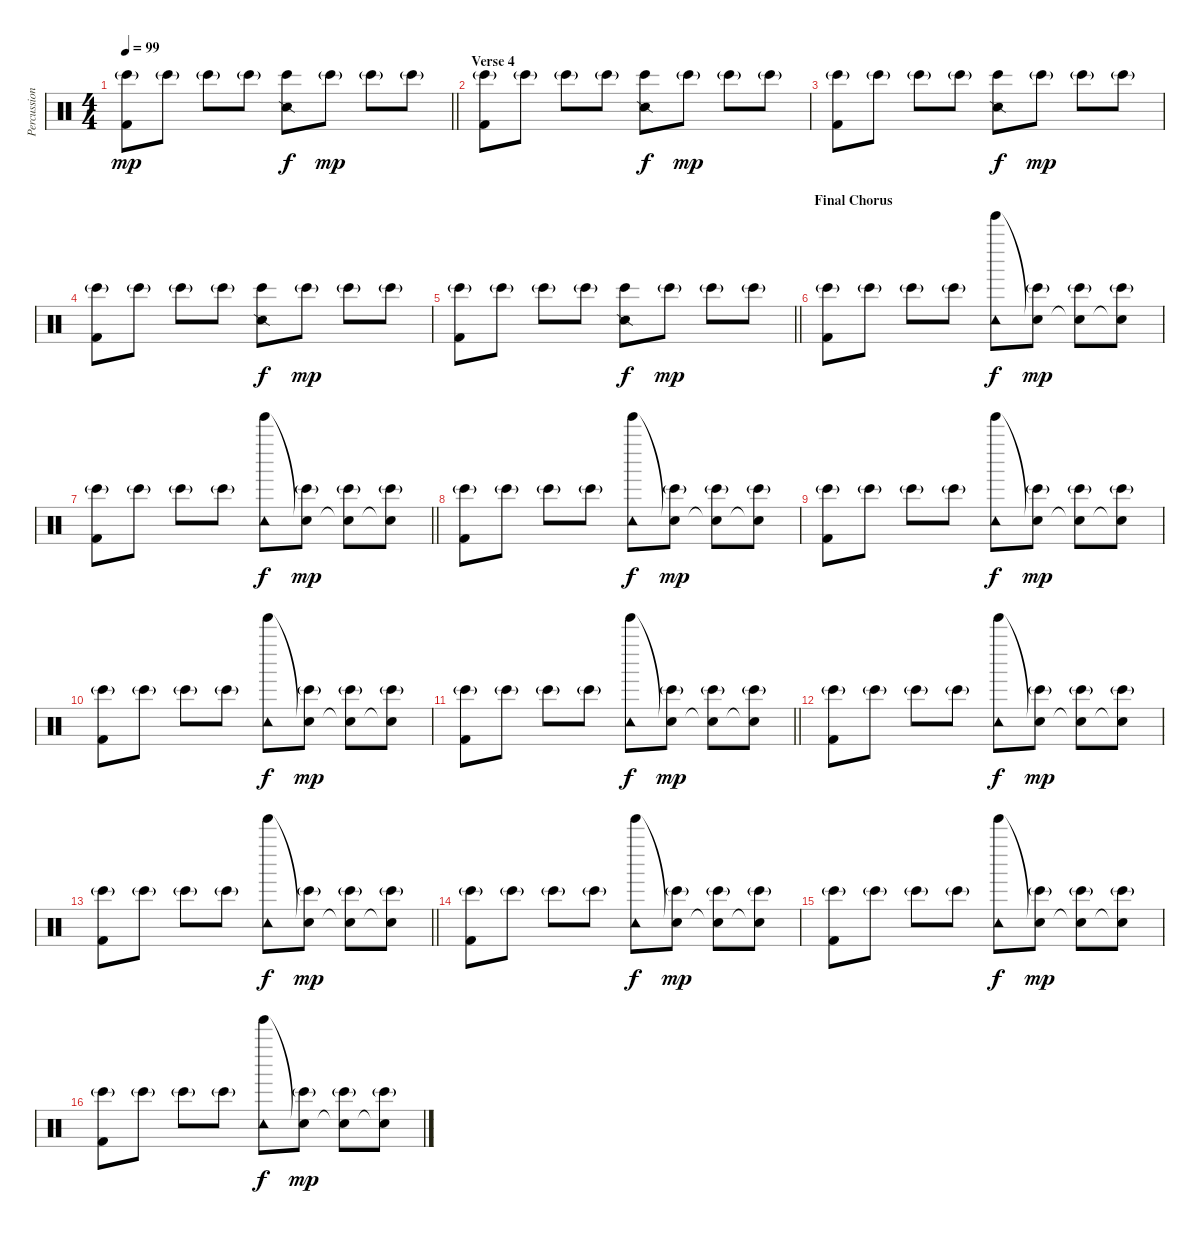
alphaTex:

\track ("Percussion" "Percussion") {instrument percussion}
\staff {score}
\articulation defaults
\ts (4 4)
\tempo 99
\clef neutral
\barLineRight lightlight
\ks c
("Bongo High (hit)"{g} "Kick (hit) 2").8{dy mp} "Bongo High (hit)"{g}.8 "Bongo High (hit)"{g}.8 "Bongo High (hit)"{g}.8 ("Bongo High (hit)" "Snare (side stick) 2").8{dy f} "Bongo High (hit)"{g}.8{dy mp} "Bongo High (hit)"{g}.8 "Bongo High (hit)"{g}.8 |
\section ("" "Verse 4")
("Bongo High (hit)"{g} "Kick (hit) 2").8 "Bongo High (hit)"{g}.8 "Bongo High (hit)"{g}.8 "Bongo High (hit)"{g}.8 ("Bongo High (hit)" "Snare (side stick) 2").8{dy f} "Bongo High (hit)"{g}.8{dy mp} "Bongo High (hit)"{g}.8 "Bongo High (hit)"{g}.8 |
("Bongo High (hit)"{g} "Kick (hit) 2").8 "Bongo High (hit)"{g}.8 "Bongo High (hit)"{g}.8 "Bongo High (hit)"{g}.8 ("Bongo High (hit)" "Snare (side stick) 2").8{dy f} "Bongo High (hit)"{g}.8{dy mp} "Bongo High (hit)"{g}.8 "Bongo High (hit)"{g}.8 |
("Bongo High (hit)"{g} "Kick (hit) 2").8 "Bongo High (hit)"{g}.8 "Bongo High (hit)"{g}.8 "Bongo High (hit)"{g}.8 ("Bongo High (hit)" "Snare (side stick) 2").8{dy f} "Bongo High (hit)"{g}.8{dy mp} "Bongo High (hit)"{g}.8 "Bongo High (hit)"{g}.8 |
\barLineRight lightlight
("Bongo High (hit)"{g} "Kick (hit) 2").8 "Bongo High (hit)"{g}.8 "Bongo High (hit)"{g}.8 "Bongo High (hit)"{g}.8 ("Bongo High (hit)" "Snare (side stick) 2").8{dy f} "Bongo High (hit)"{g}.8{dy mp} "Bongo High (hit)"{g}.8 "Bongo High (hit)"{g}.8 |
\section ("" "Final Chorus")
("Bongo High (hit)"{g} "Kick (hit) 2").8 "Bongo High (hit)"{g}.8 "Bongo High (hit)"{g}.8 "Bongo High (hit)"{g}.8 ("Tinkle Bell (hit)" "Tambourine (hit)").8{dy f} ("Snare (hit)"{t} "Bongo High (hit)"{g}).8{dy mp} ("Snare (hit)"{t} "Bongo High (hit)"{g}).8 ("Snare (hit)"{t} "Bongo High (hit)"{g}).8 |
\barLineRight lightlight
("Bongo High (hit)"{g} "Kick (hit) 2").8 "Bongo High (hit)"{g}.8 "Bongo High (hit)"{g}.8 "Bongo High (hit)"{g}.8 ("Tinkle Bell (hit)" "Tambourine (hit)").8{dy f} ("Snare (hit)"{t} "Bongo High (hit)"{g}).8{dy mp} ("Snare (hit)"{t} "Bongo High (hit)"{g}).8 ("Snare (hit)"{t} "Bongo High (hit)"{g}).8 |
("Bongo High (hit)"{g} "Kick (hit) 2").8 "Bongo High (hit)"{g}.8 "Bongo High (hit)"{g}.8 "Bongo High (hit)"{g}.8 ("Tinkle Bell (hit)" "Tambourine (hit)").8{dy f} ("Snare (hit)"{t} "Bongo High (hit)"{g}).8{dy mp} ("Snare (hit)"{t} "Bongo High (hit)"{g}).8 ("Snare (hit)"{t} "Bongo High (hit)"{g}).8 |
("Bongo High (hit)"{g} "Kick (hit) 2").8 "Bongo High (hit)"{g}.8 "Bongo High (hit)"{g}.8 "Bongo High (hit)"{g}.8 ("Tinkle Bell (hit)" "Tambourine (hit)").8{dy f} ("Snare (hit)"{t} "Bongo High (hit)"{g}).8{dy mp} ("Snare (hit)"{t} "Bongo High (hit)"{g}).8 ("Snare (hit)"{t} "Bongo High (hit)"{g}).8 |
("Bongo High (hit)"{g} "Kick (hit) 2").8 "Bongo High (hit)"{g}.8 "Bongo High (hit)"{g}.8 "Bongo High (hit)"{g}.8 ("Tinkle Bell (hit)" "Tambourine (hit)").8{dy f} ("Snare (hit)"{t} "Bongo High (hit)"{g}).8{dy mp} ("Snare (hit)"{t} "Bongo High (hit)"{g}).8 ("Snare (hit)"{t} "Bongo High (hit)"{g}).8 |
\barLineRight lightlight
("Bongo High (hit)"{g} "Kick (hit) 2").8 "Bongo High (hit)"{g}.8 "Bongo High (hit)"{g}.8 "Bongo High (hit)"{g}.8 ("Tinkle Bell (hit)" "Tambourine (hit)").8{dy f} ("Snare (hit)"{t} "Bongo High (hit)"{g}).8{dy mp} ("Snare (hit)"{t} "Bongo High (hit)"{g}).8 ("Snare (hit)"{t} "Bongo High (hit)"{g}).8 |
("Bongo High (hit)"{g} "Kick (hit) 2").8 "Bongo High (hit)"{g}.8 "Bongo High (hit)"{g}.8 "Bongo High (hit)"{g}.8 ("Tinkle Bell (hit)" "Tambourine (hit)").8{dy f} ("Snare (hit)"{t} "Bongo High (hit)"{g}).8{dy mp} ("Snare (hit)"{t} "Bongo High (hit)"{g}).8 ("Snare (hit)"{t} "Bongo High (hit)"{g}).8 |
\barLineRight lightlight
("Bongo High (hit)"{g} "Kick (hit) 2").8 "Bongo High (hit)"{g}.8 "Bongo High (hit)"{g}.8 "Bongo High (hit)"{g}.8 ("Tinkle Bell (hit)" "Tambourine (hit)").8{dy f} ("Snare (hit)"{t} "Bongo High (hit)"{g}).8{dy mp} ("Snare (hit)"{t} "Bongo High (hit)"{g}).8 ("Snare (hit)"{t} "Bongo High (hit)"{g}).8 |
("Bongo High (hit)"{g} "Kick (hit) 2").8 "Bongo High (hit)"{g}.8 "Bongo High (hit)"{g}.8 "Bongo High (hit)"{g}.8 ("Tinkle Bell (hit)" "Tambourine (hit)").8{dy f} ("Snare (hit)"{t} "Bongo High (hit)"{g}).8{dy mp} ("Snare (hit)"{t} "Bongo High (hit)"{g}).8 ("Snare (hit)"{t} "Bongo High (hit)"{g}).8 |
("Bongo High (hit)"{g} "Kick (hit) 2").8 "Bongo High (hit)"{g}.8 "Bongo High (hit)"{g}.8 "Bongo High (hit)"{g}.8 ("Tinkle Bell (hit)" "Tambourine (hit)").8{dy f} ("Snare (hit)"{t} "Bongo High (hit)"{g}).8{dy mp} ("Snare (hit)"{t} "Bongo High (hit)"{g}).8 ("Snare (hit)"{t} "Bongo High (hit)"{g}).8 |
("Bongo High (hit)"{g} "Kick (hit) 2").8 "Bongo High (hit)"{g}.8 "Bongo High (hit)"{g}.8 "Bongo High (hit)"{g}.8 ("Tinkle Bell (hit)" "Tambourine (hit)").8{dy f} ("Snare (hit)"{t} "Bongo High (hit)"{g}).8{dy mp} ("Snare (hit)"{t} "Bongo High (hit)"{g}).8 ("Snare (hit)"{t} "Bongo High (hit)"{g}).8
